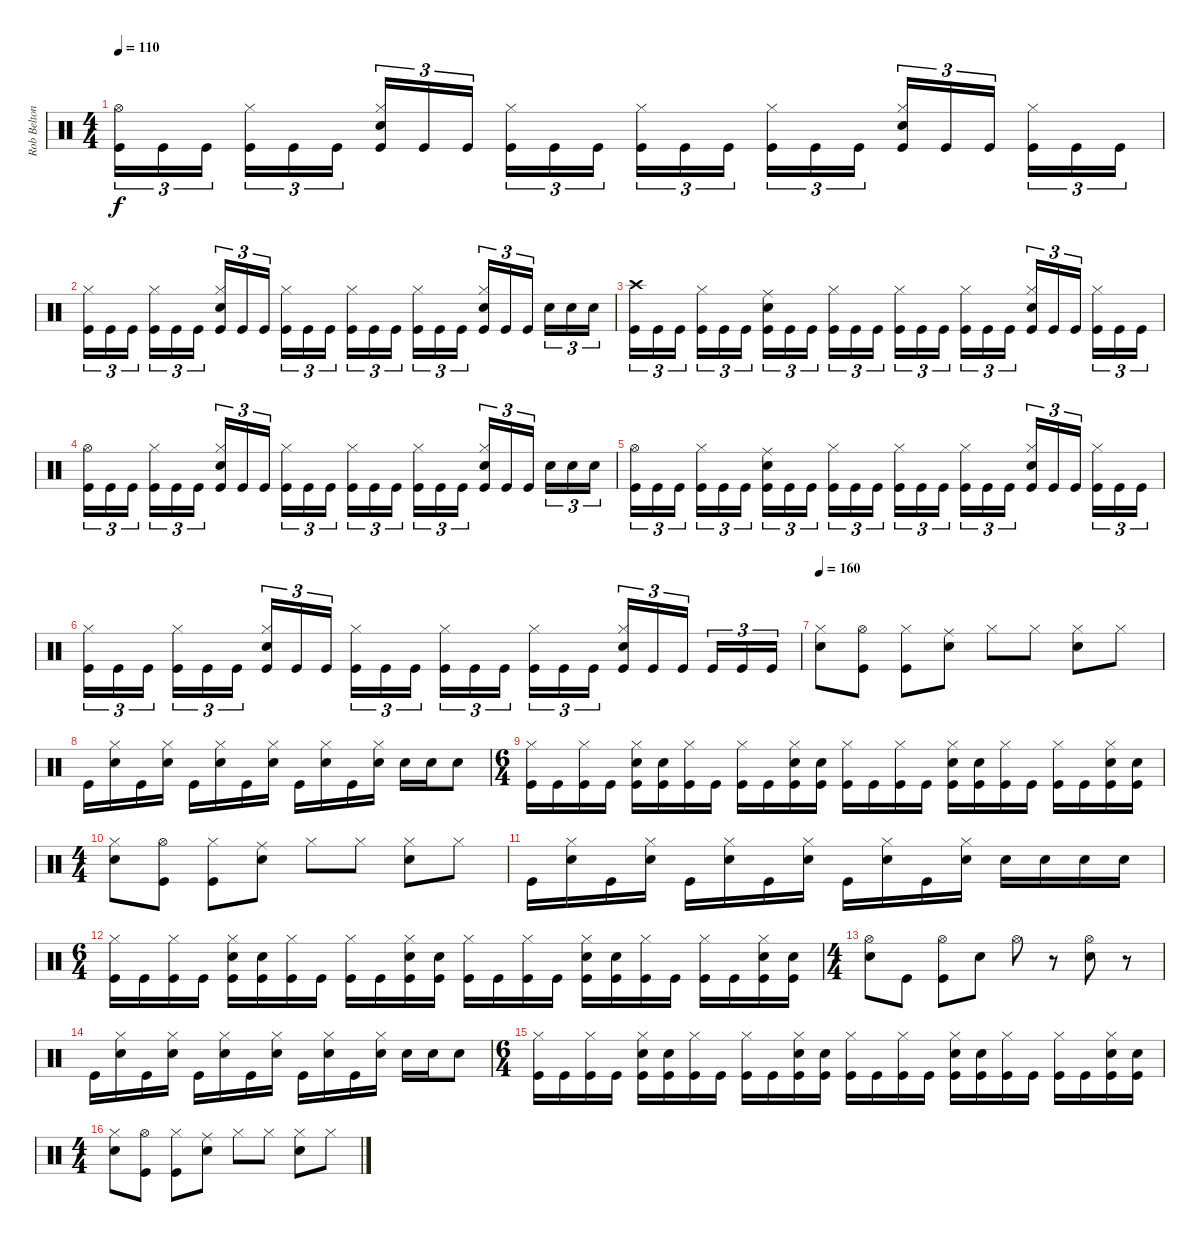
\track ("Rob Belton" "Rob Belton") {instrument percussion}
\staff {score}
\articulation defaults
\ts (4 4)
\tempo 110
\clef neutral
\ks c
("Hi-Hat (open)" "Kick (hit)").16{tu (3 2) dy f} "Kick (hit)".16{tu (3 2)} "Kick (hit)".16{tu (3 2) beam splitsecondary} ("Hi-Hat (closed)" "Kick (hit)").16{tu (3 2)} "Kick (hit)".16{tu (3 2)} "Kick (hit)".16{tu (3 2)} ("Hi-Hat (closed)" "Snare (hit) 2" "Kick (hit)").16{tu (3 2)} "Kick (hit)".16{tu (3 2)} "Kick (hit)".16{tu (3 2) beam splitsecondary} ("Hi-Hat (closed)" "Kick (hit)").16{tu (3 2)} "Kick (hit)".16{tu (3 2)} "Kick (hit)".16{tu (3 2)} ("Hi-Hat (closed)" "Kick (hit)").16{tu (3 2)} "Kick (hit)".16{tu (3 2)} "Kick (hit)".16{tu (3 2) beam splitsecondary} ("Hi-Hat (closed)" "Kick (hit)").16{tu (3 2)} "Kick (hit)".16{tu (3 2)} "Kick (hit)".16{tu (3 2)} ("Hi-Hat (closed)" "Snare (hit) 2" "Kick (hit)").16{tu (3 2)} "Kick (hit)".16{tu (3 2)} "Kick (hit)".16{tu (3 2) beam splitsecondary} ("Hi-Hat (closed)" "Kick (hit)").16{tu (3 2)} "Kick (hit)".16{tu (3 2)} "Kick (hit)".16{tu (3 2)} |
("Hi-Hat (closed)" "Kick (hit)").16{tu (3 2)} "Kick (hit)".16{tu (3 2)} "Kick (hit)".16{tu (3 2) beam splitsecondary} ("Hi-Hat (closed)" "Kick (hit)").16{tu (3 2)} "Kick (hit)".16{tu (3 2)} "Kick (hit)".16{tu (3 2)} ("Hi-Hat (closed)" "Snare (hit) 2" "Kick (hit)").16{tu (3 2)} "Kick (hit)".16{tu (3 2)} "Kick (hit)".16{tu (3 2) beam splitsecondary} ("Hi-Hat (closed)" "Kick (hit)").16{tu (3 2)} "Kick (hit)".16{tu (3 2)} "Kick (hit)".16{tu (3 2)} ("Hi-Hat (closed)" "Kick (hit)").16{tu (3 2)} "Kick (hit)".16{tu (3 2)} "Kick (hit)".16{tu (3 2) beam splitsecondary} ("Hi-Hat (closed)" "Kick (hit)").16{tu (3 2)} "Kick (hit)".16{tu (3 2)} "Kick (hit)".16{tu (3 2)} ("Hi-Hat (closed)" "Snare (hit) 2" "Kick (hit)").16{tu (3 2)} "Kick (hit)".16{tu (3 2)} "Kick (hit)".16{tu (3 2) beam splitsecondary} "Snare (hit) 2".16{tu (3 2)} "Snare (hit) 2".16{tu (3 2)} "Snare (hit) 2".16{tu (3 2)} |
("Crash high (hit)" "Kick (hit)").16{tu (3 2)} "Kick (hit)".16{tu (3 2)} "Kick (hit)".16{tu (3 2) beam splitsecondary} ("Hi-Hat (closed)" "Kick (hit)").16{tu (3 2)} "Kick (hit)".16{tu (3 2)} "Kick (hit)".16{tu (3 2)} ("Ride (middle)" "Snare (hit) 2" "Kick (hit)").16{tu (3 2)} "Kick (hit)".16{tu (3 2)} "Kick (hit)".16{tu (3 2) beam splitsecondary} ("Hi-Hat (closed)" "Kick (hit)").16{tu (3 2)} "Kick (hit)".16{tu (3 2)} "Kick (hit)".16{tu (3 2)} ("Hi-Hat (closed)" "Kick (hit)").16{tu (3 2)} "Kick (hit)".16{tu (3 2)} "Kick (hit)".16{tu (3 2) beam splitsecondary} ("Hi-Hat (closed)" "Kick (hit)").16{tu (3 2)} "Kick (hit)".16{tu (3 2)} "Kick (hit)".16{tu (3 2)} ("Hi-Hat (closed)" "Snare (hit) 2" "Kick (hit)").16{tu (3 2)} "Kick (hit)".16{tu (3 2)} "Kick (hit)".16{tu (3 2) beam splitsecondary} ("Hi-Hat (closed)" "Kick (hit)").16{tu (3 2)} "Kick (hit)".16{tu (3 2)} "Kick (hit)".16{tu (3 2)} |
("Hi-Hat (open)" "Kick (hit)").16{tu (3 2)} "Kick (hit)".16{tu (3 2)} "Kick (hit)".16{tu (3 2) beam splitsecondary} ("Hi-Hat (closed)" "Kick (hit)").16{tu (3 2)} "Kick (hit)".16{tu (3 2)} "Kick (hit)".16{tu (3 2)} ("Hi-Hat (closed)" "Snare (hit) 2" "Kick (hit)").16{tu (3 2)} "Kick (hit)".16{tu (3 2)} "Kick (hit)".16{tu (3 2) beam splitsecondary} ("Hi-Hat (closed)" "Kick (hit)").16{tu (3 2)} "Kick (hit)".16{tu (3 2)} "Kick (hit)".16{tu (3 2)} ("Hi-Hat (closed)" "Kick (hit)").16{tu (3 2)} "Kick (hit)".16{tu (3 2)} "Kick (hit)".16{tu (3 2) beam splitsecondary} ("Hi-Hat (closed)" "Kick (hit)").16{tu (3 2)} "Kick (hit)".16{tu (3 2)} "Kick (hit)".16{tu (3 2)} ("Hi-Hat (closed)" "Snare (hit) 2" "Kick (hit)").16{tu (3 2)} "Kick (hit)".16{tu (3 2)} "Kick (hit)".16{tu (3 2) beam splitsecondary} "Snare (hit) 2".16{tu (3 2)} "Snare (hit) 2".16{tu (3 2)} "Snare (hit) 2".16{tu (3 2)} |
("Hi-Hat (open)" "Kick (hit)").16{tu (3 2)} "Kick (hit)".16{tu (3 2)} "Kick (hit)".16{tu (3 2) beam splitsecondary} ("Hi-Hat (closed)" "Kick (hit)").16{tu (3 2)} "Kick (hit)".16{tu (3 2)} "Kick (hit)".16{tu (3 2)} ("Ride (middle)" "Snare (hit) 2" "Kick (hit)").16{tu (3 2)} "Kick (hit)".16{tu (3 2)} "Kick (hit)".16{tu (3 2) beam splitsecondary} ("Hi-Hat (closed)" "Kick (hit)").16{tu (3 2)} "Kick (hit)".16{tu (3 2)} "Kick (hit)".16{tu (3 2)} ("Hi-Hat (closed)" "Kick (hit)").16{tu (3 2)} "Kick (hit)".16{tu (3 2)} "Kick (hit)".16{tu (3 2) beam splitsecondary} ("Hi-Hat (closed)" "Kick (hit)").16{tu (3 2)} "Kick (hit)".16{tu (3 2)} "Kick (hit)".16{tu (3 2)} ("Hi-Hat (closed)" "Snare (hit) 2" "Kick (hit)").16{tu (3 2)} "Kick (hit)".16{tu (3 2)} "Kick (hit)".16{tu (3 2) beam splitsecondary} ("Hi-Hat (closed)" "Kick (hit)").16{tu (3 2)} "Kick (hit)".16{tu (3 2)} "Kick (hit)".16{tu (3 2)} |
("Hi-Hat (closed)" "Kick (hit)").16{tu (3 2)} "Kick (hit)".16{tu (3 2)} "Kick (hit)".16{tu (3 2) beam splitsecondary} ("Hi-Hat (closed)" "Kick (hit)").16{tu (3 2)} "Kick (hit)".16{tu (3 2)} "Kick (hit)".16{tu (3 2)} ("Hi-Hat (closed)" "Snare (hit) 2" "Kick (hit)").16{tu (3 2)} "Kick (hit)".16{tu (3 2)} "Kick (hit)".16{tu (3 2) beam splitsecondary} ("Hi-Hat (closed)" "Kick (hit)").16{tu (3 2)} "Kick (hit)".16{tu (3 2)} "Kick (hit)".16{tu (3 2)} ("Hi-Hat (closed)" "Kick (hit)").16{tu (3 2)} "Kick (hit)".16{tu (3 2)} "Kick (hit)".16{tu (3 2) beam splitsecondary} ("Hi-Hat (closed)" "Kick (hit)").16{tu (3 2)} "Kick (hit)".16{tu (3 2)} "Kick (hit)".16{tu (3 2)} ("Hi-Hat (closed)" "Snare (hit) 2" "Kick (hit)").16{tu (3 2)} "Kick (hit)".16{tu (3 2)} "Kick (hit)".16{tu (3 2) beam splitsecondary} "Kick (hit)".16{tu (3 2)} "Kick (hit)".16{tu (3 2)} "Kick (hit)".16{tu (3 2)} |
\tempo 160
("Hi-Hat (closed)" "Snare (hit) 2").8 ("Hi-Hat (open)" "Kick (hit)").8 ("Hi-Hat (closed)" "Kick (hit)").8 ("Ride (middle)" "Snare (hit) 2").8 "Hi-Hat (closed)".8 "Hi-Hat (closed)".8 ("Hi-Hat (closed)" "Snare (hit) 2").8 "Hi-Hat (closed)".8 |
"Kick (hit)".16 ("Hi-Hat (closed)" "Snare (hit) 2").16 "Kick (hit)".16 ("Hi-Hat (closed)" "Snare (hit) 2").16 "Kick (hit)".16 ("Hi-Hat (closed)" "Snare (hit) 2").16 "Kick (hit)".16 ("Hi-Hat (closed)" "Snare (hit) 2").16 "Kick (hit)".16 ("Hi-Hat (closed)" "Snare (hit) 2").16 "Kick (hit)".16 ("Hi-Hat (closed)" "Snare (hit) 2").16 "Snare (hit) 2".16 "Snare (hit) 2".16 "Snare (hit) 2".8 |
\ts (6 4)
("Hi-Hat (closed)" "Kick (hit)").16 "Kick (hit)".16 ("Hi-Hat (closed)" "Kick (hit)").16 "Kick (hit)".16 ("Hi-Hat (closed)" "Snare (hit) 2" "Kick (hit)").16 ("Snare (hit) 2" "Kick (hit)").16 ("Hi-Hat (closed)" "Kick (hit)").16 "Kick (hit)".16 ("Hi-Hat (closed)" "Kick (hit)").16 "Kick (hit)".16 ("Hi-Hat (closed)" "Snare (hit) 2" "Kick (hit)").16 ("Snare (hit) 2" "Kick (hit)").16 ("Hi-Hat (closed)" "Kick (hit)").16 "Kick (hit)".16 ("Hi-Hat (closed)" "Kick (hit)").16 "Kick (hit)".16 ("Hi-Hat (closed)" "Snare (hit) 2" "Kick (hit)").16 ("Snare (hit) 2" "Kick (hit)").16 ("Hi-Hat (closed)" "Kick (hit)").16 "Kick (hit)".16 ("Hi-Hat (closed)" "Kick (hit)").16 "Kick (hit)".16 ("Hi-Hat (closed)" "Snare (hit) 2" "Kick (hit)").16 ("Snare (hit) 2" "Kick (hit)").16 |
\ts (4 4)
("Hi-Hat (closed)" "Snare (hit) 2").8 ("Hi-Hat (open)" "Kick (hit)").8 ("Hi-Hat (closed)" "Kick (hit)").8 ("Ride (middle)" "Snare (hit) 2").8 "Hi-Hat (closed)".8 "Hi-Hat (closed)".8 ("Hi-Hat (closed)" "Snare (hit) 2").8 "Hi-Hat (closed)".8 |
"Kick (hit)".16 ("Hi-Hat (closed)" "Snare (hit) 2").16 "Kick (hit)".16 ("Hi-Hat (closed)" "Snare (hit) 2").16 "Kick (hit)".16 ("Hi-Hat (closed)" "Snare (hit) 2").16 "Kick (hit)".16 ("Hi-Hat (closed)" "Snare (hit) 2").16 "Kick (hit)".16 ("Hi-Hat (closed)" "Snare (hit) 2").16 "Kick (hit)".16 ("Hi-Hat (closed)" "Snare (hit) 2").16 "Snare (hit) 2".16 "Snare (hit) 2".16 "Snare (hit) 2".16 "Snare (hit) 2".16 |
\ts (6 4)
("Hi-Hat (closed)" "Kick (hit)").16 "Kick (hit)".16 ("Hi-Hat (closed)" "Kick (hit)").16 "Kick (hit)".16 ("Hi-Hat (closed)" "Snare (hit) 2" "Kick (hit)").16 ("Snare (hit) 2" "Kick (hit)").16 ("Hi-Hat (closed)" "Kick (hit)").16 "Kick (hit)".16 ("Hi-Hat (closed)" "Kick (hit)").16 "Kick (hit)".16 ("Hi-Hat (closed)" "Snare (hit) 2" "Kick (hit)").16 ("Snare (hit) 2" "Kick (hit)").16 ("Hi-Hat (closed)" "Kick (hit)").16 "Kick (hit)".16 ("Hi-Hat (closed)" "Kick (hit)").16 "Kick (hit)".16 ("Hi-Hat (closed)" "Snare (hit) 2" "Kick (hit)").16 ("Snare (hit) 2" "Kick (hit)").16 ("Hi-Hat (closed)" "Kick (hit)").16 "Kick (hit)".16 ("Hi-Hat (closed)" "Kick (hit)").16 "Kick (hit)".16 ("Hi-Hat (closed)" "Snare (hit) 2" "Kick (hit)").16 ("Snare (hit) 2" "Kick (hit)").16 |
\ts (4 4)
("Hi-Hat (open)" "Snare (hit) 2").8 "Kick (hit)".8 ("Hi-Hat (open)" "Kick (hit)").8 "Snare (hit) 2".8 "Hi-Hat (open)".8 r.8 ("Hi-Hat (open)" "Snare (hit) 2").8 r.8 |
"Kick (hit)".16 ("Hi-Hat (closed)" "Snare (hit) 2").16 "Kick (hit)".16 ("Hi-Hat (closed)" "Snare (hit) 2").16 "Kick (hit)".16 ("Hi-Hat (closed)" "Snare (hit) 2").16 "Kick (hit)".16 ("Hi-Hat (closed)" "Snare (hit) 2").16 "Kick (hit)".16 ("Hi-Hat (closed)" "Snare (hit) 2").16 "Kick (hit)".16 ("Hi-Hat (closed)" "Snare (hit) 2").16 "Snare (hit) 2".16 "Snare (hit) 2".16 "Snare (hit) 2".8 |
\ts (6 4)
("Hi-Hat (closed)" "Kick (hit)").16 "Kick (hit)".16 ("Hi-Hat (closed)" "Kick (hit)").16 "Kick (hit)".16 ("Hi-Hat (closed)" "Snare (hit) 2" "Kick (hit)").16 ("Snare (hit) 2" "Kick (hit)").16 ("Hi-Hat (closed)" "Kick (hit)").16 "Kick (hit)".16 ("Hi-Hat (closed)" "Kick (hit)").16 "Kick (hit)".16 ("Hi-Hat (closed)" "Snare (hit) 2" "Kick (hit)").16 ("Snare (hit) 2" "Kick (hit)").16 ("Hi-Hat (closed)" "Kick (hit)").16 "Kick (hit)".16 ("Hi-Hat (closed)" "Kick (hit)").16 "Kick (hit)".16 ("Hi-Hat (closed)" "Snare (hit) 2" "Kick (hit)").16 ("Snare (hit) 2" "Kick (hit)").16 ("Hi-Hat (closed)" "Kick (hit)").16 "Kick (hit)".16 ("Hi-Hat (closed)" "Kick (hit)").16 "Kick (hit)".16 ("Hi-Hat (closed)" "Snare (hit) 2" "Kick (hit)").16 ("Snare (hit) 2" "Kick (hit)").16 |
\ts (4 4)
("Hi-Hat (closed)" "Snare (hit) 2").8 ("Hi-Hat (open)" "Kick (hit)").8 ("Hi-Hat (closed)" "Kick (hit)").8 ("Ride (middle)" "Snare (hit) 2").8 "Hi-Hat (closed)".8 "Hi-Hat (closed)".8 ("Hi-Hat (closed)" "Snare (hit) 2").8 "Hi-Hat (closed)".8
